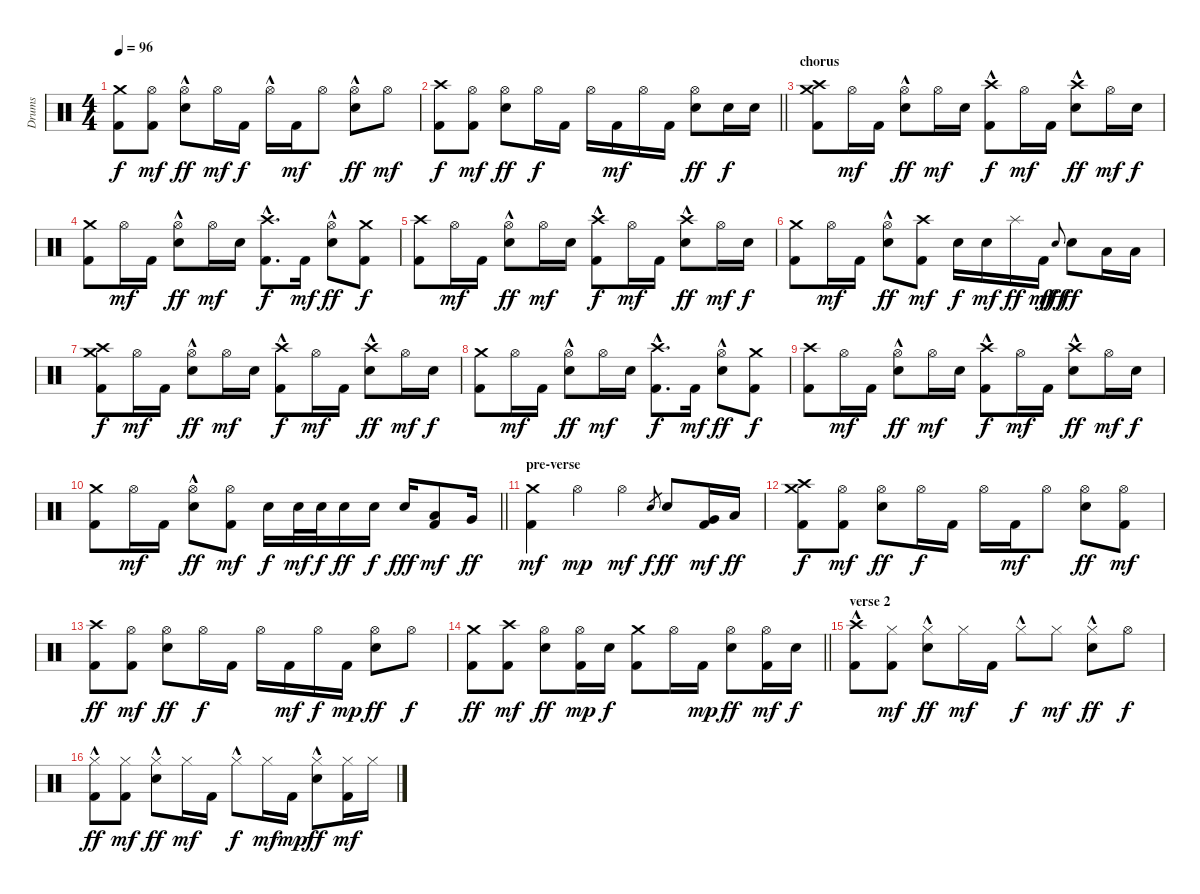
\track ("Drums" "Drums") {instrument percussion}
\staff {score}
\articulation defaults
\ts (4 4)
\tempo 96
\clef neutral
\ks c
("Crash medium (hit)" "Kick (hit) 2").8{dy f} ("Hi-Hat (open)" "Kick (hit) 2").8{dy mf} ("Hi-Hat (open)"{hac} "Electric Snare (hit)").8{dy ff} "Hi-Hat (open)".16{dy mf} "Kick (hit) 2".16{dy f} "Hi-Hat (open)"{hac}.16 "Kick (hit) 2".16{dy mf} "Hi-Hat (open)".8 ("Hi-Hat (open)"{hac} "Electric Snare (hit)").8{dy ff} "Hi-Hat (open)".8{dy mf} |
\barLineRight lightlight
("Crash high (hit)" "Kick (hit) 2").8{dy f} ("Hi-Hat (open)" "Kick (hit) 2").8{dy mf} ("Hi-Hat (open)" "Electric Snare (hit)").8{dy ff} "Hi-Hat (open)".16{dy f} "Kick (hit) 2".16 "Hi-Hat (open)".16 "Kick (hit) 2".16{dy mf} "Hi-Hat (open)".16 "Kick (hit) 2".16 ("Hi-Hat (open)" "Electric Snare (hit)").8{dy ff} "Electric Snare (hit)".16{dy f} "Electric Snare (hit)".16 |
\section ("" "chorus")
("Crash medium (hit)" "Crash high (hit)" "Kick (hit) 2").8 "Hi-Hat (open)".16{dy mf} "Kick (hit) 2".16 ("Hi-Hat (open)"{hac} "Electric Snare (hit)").8{dy ff} "Hi-Hat (open)".16{dy mf} "Electric Snare (hit)".16 ("Crash high (hit)"{hac} "Kick (hit) 2").8{dy f} "Hi-Hat (open)".16{dy mf} "Kick (hit) 2".16 ("Crash high (hit)"{hac} "Electric Snare (hit)").8{dy ff} "Hi-Hat (open)".16{dy mf} "Electric Snare (hit)".16{dy f} |
("Crash medium (hit)" "Kick (hit) 2").8 "Hi-Hat (open)".16{dy mf} "Kick (hit) 2".16 ("Hi-Hat (open)"{hac} "Electric Snare (hit)").8{dy ff} "Hi-Hat (open)".16{dy mf} "Electric Snare (hit)".16 ("Crash high (hit)"{hac} "Kick (hit) 2").8{d dy f} "Kick (hit) 2".16{dy mf} ("Hi-Hat (open)"{hac} "Electric Snare (hit)").8{dy ff} ("Crash medium (hit)" "Kick (hit) 2").8{dy f} |
("Crash high (hit)" "Kick (hit) 2").8 "Hi-Hat (open)".16{dy mf} "Kick (hit) 2".16 ("Hi-Hat (open)"{hac} "Electric Snare (hit)").8{dy ff} "Hi-Hat (open)".16{dy mf} "Electric Snare (hit)".16 ("Crash high (hit)"{hac} "Kick (hit) 2").8{dy f} "Hi-Hat (open)".16{dy mf} "Kick (hit) 2".16 ("Crash high (hit)"{hac} "Electric Snare (hit)").8{dy ff} "Hi-Hat (open)".16{dy mf} "Electric Snare (hit)".16{dy f} |
("Crash medium (hit)" "Kick (hit) 2").8 "Hi-Hat (open)".16{dy mf} "Kick (hit) 2".16 ("Hi-Hat (open)"{hac} "Electric Snare (hit)").8{dy ff} ("Crash high (hit)" "Kick (hit) 2").8{dy mf} "Electric Snare (hit)".16{dy f} "Electric Snare (hit)".16{dy mf} "Splash (hit)".16{dy ff} "Kick (hit) 2".16{dy mf} "Electric Snare (hit)".8{gr onbeat dy fff} "Electric Snare (hit)".8{dy ff} "Low Tom (hit)".16 "Low Tom (hit)".16 |
("Crash medium (hit)" "Crash high (hit)" "Kick (hit) 2").8{dy f} "Hi-Hat (open)".16{dy mf} "Kick (hit) 2".16 ("Hi-Hat (open)"{hac} "Electric Snare (hit)").8{dy ff} "Hi-Hat (open)".16{dy mf} "Electric Snare (hit)".16 ("Crash high (hit)"{hac} "Kick (hit) 2").8{dy f} "Hi-Hat (open)".16{dy mf} "Kick (hit) 2".16 ("Crash high (hit)"{hac} "Electric Snare (hit)").8{dy ff} "Hi-Hat (open)".16{dy mf} "Electric Snare (hit)".16{dy f} |
("Crash medium (hit)" "Kick (hit) 2").8 "Hi-Hat (open)".16{dy mf} "Kick (hit) 2".16 ("Hi-Hat (open)"{hac} "Electric Snare (hit)").8{dy ff} "Hi-Hat (open)".16{dy mf} "Electric Snare (hit)".16 ("Crash high (hit)"{hac} "Kick (hit) 2").8{d dy f} "Kick (hit) 2".16{dy mf} ("Hi-Hat (open)"{hac} "Electric Snare (hit)").8{dy ff} ("Crash medium (hit)" "Kick (hit) 2").8{dy f} |
("Crash high (hit)" "Kick (hit) 2").8 "Hi-Hat (open)".16{dy mf} "Kick (hit) 2".16 ("Hi-Hat (open)"{hac} "Electric Snare (hit)").8{dy ff} "Hi-Hat (open)".16{dy mf} "Electric Snare (hit)".16 ("Crash high (hit)"{hac} "Kick (hit) 2").8{dy f} "Hi-Hat (open)".16{dy mf} "Kick (hit) 2".16 ("Crash high (hit)"{hac} "Electric Snare (hit)").8{dy ff} "Hi-Hat (open)".16{dy mf} "Electric Snare (hit)".16{dy f} |
\barLineRight lightlight
("Crash medium (hit)" "Kick (hit) 2").8 "Hi-Hat (open)".16{dy mf} "Kick (hit) 2".16 ("Hi-Hat (open)"{hac} "Electric Snare (hit)").8{dy ff} ("Hi-Hat (open)" "Kick (hit) 2").8{dy mf} "Electric Snare (hit)".16{dy f} "Electric Snare (hit)".32{dy mf} "Electric Snare (hit)".32{dy f} "Electric Snare (hit)".16{dy ff} "Electric Snare (hit)".16{dy f} "Electric Snare (hit)".16{dy fff} ("Low Tom (hit)" "Kick (hit) 2").8{dy mf} "Very Low Tom (hit)".16{dy ff} |
\section ("" "pre-verse")
("Crash medium (hit)" "Kick (hit) 2").4{dy mf} "Hi-Hat (open)".4{dy mp} "Hi-Hat (open)".4{dy mf} "Electric Snare (hit)".8{gr dy f} "Electric Snare (hit)".8{dy ff} ("Very Low Tom (hit)" "Kick (hit) 2").16{dy mf} "Low Tom (hit)".16{dy ff} |
("Crash medium (hit)" "Crash high (hit)" "Kick (hit) 2").8{dy f} ("Hi-Hat (open)" "Kick (hit) 2").8{dy mf} ("Hi-Hat (open)" "Electric Snare (hit)").8{dy ff} "Hi-Hat (open)".16{dy f} "Kick (hit) 2".16 "Hi-Hat (open)".16 "Kick (hit) 2".16{dy mf} "Hi-Hat (open)".8 ("Hi-Hat (open)" "Electric Snare (hit)").8{dy ff} ("Hi-Hat (open)" "Kick (hit) 2").8{dy mf} |
("Crash high (hit)" "Kick (hit) 2").8{dy ff} ("Hi-Hat (open)" "Kick (hit) 2").8{dy mf} ("Hi-Hat (open)" "Electric Snare (hit)").8{dy ff} "Hi-Hat (open)".16{dy f} "Kick (hit) 2".16 "Hi-Hat (open)".16 "Kick (hit) 2".16{dy mf} "Hi-Hat (open)".16{dy f} "Kick (hit) 2".16{dy mp} ("Hi-Hat (open)" "Electric Snare (hit)").8{dy ff} "Hi-Hat (open)".8{dy f} |
\barLineRight lightlight
("Crash medium (hit)" "Kick (hit) 2").8{dy ff} ("Crash high (hit)" "Kick (hit) 2").8{dy mf} ("Hi-Hat (open)" "Electric Snare (hit)").8{dy ff} ("Hi-Hat (open)" "Kick (hit) 2").16{dy mp} "Electric Snare (hit)".16{dy f} ("Crash medium (hit)" "Kick (hit) 2").8 "Hi-Hat (open)".16 "Kick (hit) 2".16{dy mp} ("Hi-Hat (open)" "Electric Snare (hit)").8{dy ff} ("Hi-Hat (open)" "Kick (hit) 2").16{dy mf} "Electric Snare (hit)".16{dy f} |
\section ("" "verse 2")
("Crash high (hit)"{hac} "Kick (hit) 2").8 ("Hi-Hat (closed)" "Kick (hit) 2").8{dy mf} ("Hi-Hat (closed)"{hac} "Electric Snare (hit)").8{dy ff} "Hi-Hat (closed)".16{dy mf} "Kick (hit) 2".16 "Hi-Hat (closed)"{hac}.8{dy f} "Hi-Hat (closed)".8{dy mf} ("Hi-Hat (closed)"{hac} "Electric Snare (hit)").8{dy ff} "Hi-Hat (open)".8{dy f} |
("Hi-Hat (closed)"{hac} "Kick (hit) 2").8{dy ff} ("Hi-Hat (closed)" "Kick (hit) 2").8{dy mf} ("Hi-Hat (closed)"{hac} "Electric Snare (hit)").8{dy ff} "Hi-Hat (closed)".16{dy mf} "Kick (hit) 2".16 "Hi-Hat (closed)"{hac}.8{dy f} "Hi-Hat (closed)".16{dy mf} "Kick (hit) 2".16{dy mp} ("Hi-Hat (closed)"{hac} "Electric Snare (hit)").8{dy ff} ("Hi-Hat (closed)" "Kick (hit) 2").16{dy mf} "Hi-Hat (closed)".16
